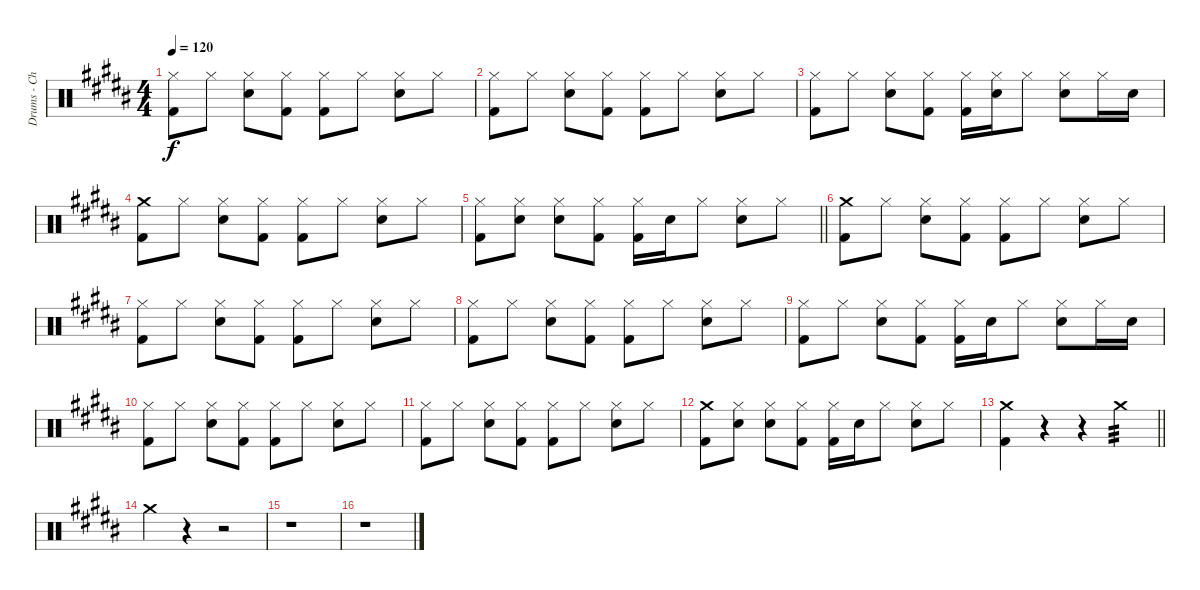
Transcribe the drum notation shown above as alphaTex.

\track ("Drums - Choi Min Hwan" "Drums - Ch") {instrument percussion}
\staff {score}
\articulation defaults
\ts (4 4)
\tempo 120
\clef neutral
\ks g#minor
("Hi-Hat (closed)" "Kick (hit) 2").8{dy f} "Hi-Hat (closed)".8 ("Hi-Hat (closed)" "Electric Snare (hit)").8 ("Hi-Hat (closed)" "Kick (hit) 2").8 ("Hi-Hat (closed)" "Kick (hit) 2").8 "Hi-Hat (closed)".8 ("Hi-Hat (closed)" "Electric Snare (hit)").8 "Hi-Hat (closed)".8 |
("Hi-Hat (closed)" "Kick (hit) 2").8 "Hi-Hat (closed)".8 ("Hi-Hat (closed)" "Electric Snare (hit)").8 ("Hi-Hat (closed)" "Kick (hit) 2").8 ("Hi-Hat (closed)" "Kick (hit) 2").8 "Hi-Hat (closed)".8 ("Hi-Hat (closed)" "Electric Snare (hit)").8 "Hi-Hat (closed)".8 |
("Hi-Hat (closed)" "Kick (hit) 2").8 "Hi-Hat (closed)".8 ("Hi-Hat (closed)" "Electric Snare (hit)").8 ("Hi-Hat (closed)" "Kick (hit) 2").8 ("Hi-Hat (closed)" "Kick (hit) 2").16 ("Hi-Hat (closed)" "Electric Snare (hit)").16 "Hi-Hat (closed)".8 ("Hi-Hat (closed)" "Electric Snare (hit)").8 "Hi-Hat (closed)".16 "Electric Snare (hit)".16 |
("Crash medium (hit)" "Kick (hit) 2").8 "Hi-Hat (closed)".8 ("Hi-Hat (closed)" "Electric Snare (hit)").8 ("Hi-Hat (closed)" "Kick (hit) 2").8 ("Hi-Hat (closed)" "Kick (hit) 2").8 "Hi-Hat (closed)".8 ("Hi-Hat (closed)" "Electric Snare (hit)").8 "Hi-Hat (closed)".8 |
\barLineRight lightlight
("Hi-Hat (closed)" "Kick (hit) 2").8 ("Hi-Hat (closed)" "Electric Snare (hit)").8 ("Hi-Hat (closed)" "Electric Snare (hit)").8 ("Hi-Hat (closed)" "Kick (hit) 2").8 ("Hi-Hat (closed)" "Kick (hit) 2").16 "Electric Snare (hit)".16 "Hi-Hat (closed)".8 ("Hi-Hat (closed)" "Electric Snare (hit)").8 "Hi-Hat (closed)".8 |
("Crash medium (hit)" "Kick (hit) 2").8 "Hi-Hat (closed)".8 ("Hi-Hat (closed)" "Electric Snare (hit)").8 ("Hi-Hat (closed)" "Kick (hit) 2").8 ("Hi-Hat (closed)" "Kick (hit) 2").8 "Hi-Hat (closed)".8 ("Hi-Hat (closed)" "Electric Snare (hit)").8 "Hi-Hat (closed)".8 |
("Hi-Hat (closed)" "Kick (hit) 2").8 "Hi-Hat (closed)".8 ("Hi-Hat (closed)" "Electric Snare (hit)").8 ("Hi-Hat (closed)" "Kick (hit) 2").8 ("Hi-Hat (closed)" "Kick (hit) 2").8 "Hi-Hat (closed)".8 ("Hi-Hat (closed)" "Electric Snare (hit)").8 "Hi-Hat (closed)".8 |
("Hi-Hat (closed)" "Kick (hit) 2").8 "Hi-Hat (closed)".8 ("Hi-Hat (closed)" "Electric Snare (hit)").8 ("Hi-Hat (closed)" "Kick (hit) 2").8 ("Hi-Hat (closed)" "Kick (hit) 2").8 "Hi-Hat (closed)".8 ("Hi-Hat (closed)" "Electric Snare (hit)").8 "Hi-Hat (closed)".8 |
("Hi-Hat (closed)" "Kick (hit) 2").8 "Hi-Hat (closed)".8 ("Hi-Hat (closed)" "Electric Snare (hit)").8 ("Hi-Hat (closed)" "Kick (hit) 2").8 ("Hi-Hat (closed)" "Kick (hit) 2").16 "Electric Snare (hit)".16 "Hi-Hat (closed)".8 ("Hi-Hat (closed)" "Electric Snare (hit)").8 "Hi-Hat (closed)".16 "Electric Snare (hit)".16 |
("Hi-Hat (closed)" "Kick (hit) 2").8 "Hi-Hat (closed)".8 ("Hi-Hat (closed)" "Electric Snare (hit)").8 ("Hi-Hat (closed)" "Kick (hit) 2").8 ("Hi-Hat (closed)" "Kick (hit) 2").8 "Hi-Hat (closed)".8 ("Hi-Hat (closed)" "Electric Snare (hit)").8 "Hi-Hat (closed)".8 |
("Hi-Hat (closed)" "Kick (hit) 2").8 "Hi-Hat (closed)".8 ("Hi-Hat (closed)" "Electric Snare (hit)").8 ("Hi-Hat (closed)" "Kick (hit) 2").8 ("Hi-Hat (closed)" "Kick (hit) 2").8 "Hi-Hat (closed)".8 ("Hi-Hat (closed)" "Electric Snare (hit)").8 "Hi-Hat (closed)".8 |
("Crash medium (hit)" "Kick (hit) 2").8 ("Hi-Hat (closed)" "Electric Snare (hit)").8 ("Hi-Hat (closed)" "Electric Snare (hit)").8 ("Hi-Hat (closed)" "Kick (hit) 2").8 ("Hi-Hat (closed)" "Kick (hit) 2").16 "Electric Snare (hit)".16 "Hi-Hat (closed)".8 ("Hi-Hat (closed)" "Electric Snare (hit)").8 "Hi-Hat (closed)".8 |
\barLineRight lightlight
("Crash medium (hit)" "Kick (hit) 2").4 r.4 r.4 "Crash medium (hit)".4{tp 3} |
"Crash medium (hit)".4 r.4 r.2 |
r.1 |
r.1
